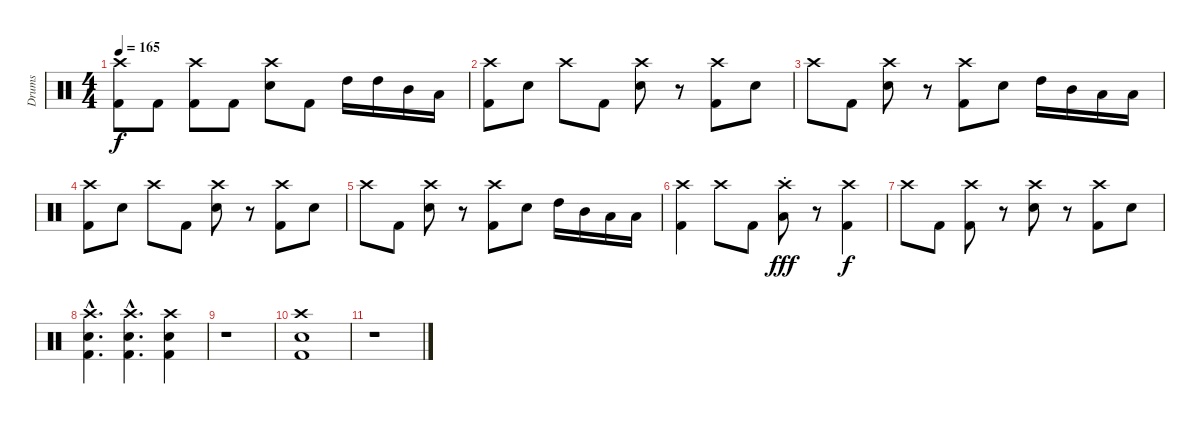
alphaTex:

\track ("Drums" "Drums") {instrument percussion}
\staff {score}
\articulation defaults
\ts (4 4)
\tempo 165
\clef neutral
\ks c
("Crash high (hit)" "Kick (hit) 2").8{dy f} "Kick (hit) 2".8 ("Crash high (hit)" "Kick (hit) 2").8 "Kick (hit) 2".8 ("Crash high (hit)" "Electric Snare (hit)").8 "Kick (hit) 2".8 "High Tom (hit)".16 "High Tom (hit)".16 "Mid Tom (hit)".16 "Low Tom (hit)".16 |
("Crash high (hit)" "Kick (hit) 2").8 "Electric Snare (hit)".8 "Crash high (hit)".8 "Kick (hit) 2".8 ("Crash high (hit)" "Electric Snare (hit)").8 r.8 ("Crash high (hit)" "Kick (hit) 2").8 "Electric Snare (hit)".8 |
"Crash high (hit)".8 "Kick (hit) 2".8 ("Crash high (hit)" "Electric Snare (hit)").8 r.8 ("Crash high (hit)" "Kick (hit) 2").8 "Electric Snare (hit)".8 "High Tom (hit)".16 "Mid Tom (hit)".16 "Low Tom (hit)".16 "Low Tom (hit)".16 |
("Crash high (hit)" "Kick (hit) 2").8 "Electric Snare (hit)".8 "Crash high (hit)".8 "Kick (hit) 2".8 ("Crash high (hit)" "Electric Snare (hit)").8 r.8 ("Crash high (hit)" "Kick (hit) 2").8 "Electric Snare (hit)".8 |
"Crash high (hit)".8 "Kick (hit) 2".8 ("Crash high (hit)" "Electric Snare (hit)").8 r.8 ("Crash high (hit)" "Kick (hit) 2").8 "Electric Snare (hit)".8 "High Tom (hit)".16 "Mid Tom (hit)".16 "Low Tom (hit)".16 "Low Tom (hit)".16 |
("Crash high (hit)" "Kick (hit) 2").4 "Crash high (hit)".8 "Kick (hit) 2".8 ("Crash high (hit)"{st} "Low Tom (hit)").8{dy fff} r.8 ("Crash high (hit)" "Kick (hit) 2").4{dy f} |
"Crash high (hit)".8 "Kick (hit) 2".8 ("Crash high (hit)" "Kick (hit) 2").8 r.8 ("Crash high (hit)" "Electric Snare (hit)").8 r.8 ("Crash high (hit)" "Kick (hit) 2").8 "Electric Snare (hit)".8 |
("Crash high (hit)"{hac} "Electric Snare (hit)"{hac} "Kick (hit) 2"{hac}).4{d} ("Crash high (hit)"{hac} "Electric Snare (hit)"{hac} "Kick (hit) 2"{hac}).4{d} ("Crash high (hit)" "Electric Snare (hit)" "Kick (hit) 2").4 |
r.1 |
("Crash high (hit)" "Electric Snare (hit)" "Kick (hit) 2").1 |
r.1
